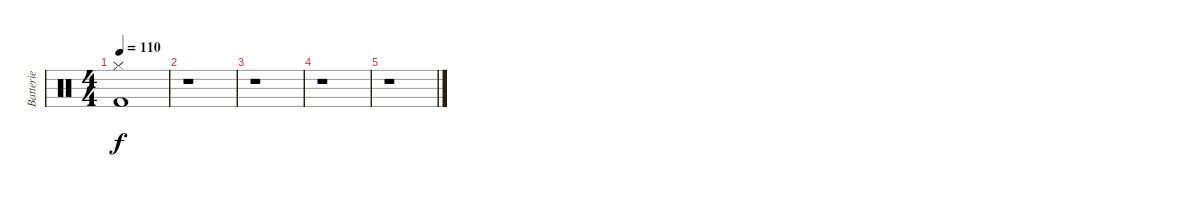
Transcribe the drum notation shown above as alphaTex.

\track ("Batterie" "Batterie") {instrument percussion}
\staff {score}
\articulation defaults
\ts (4 4)
\tempo 110
\clef neutral
\ks c
("Hi-Hat (closed)" "Kick (hit) 2").1{dy f} |
r.1 |
r.1 |
r.1 |
r.1
